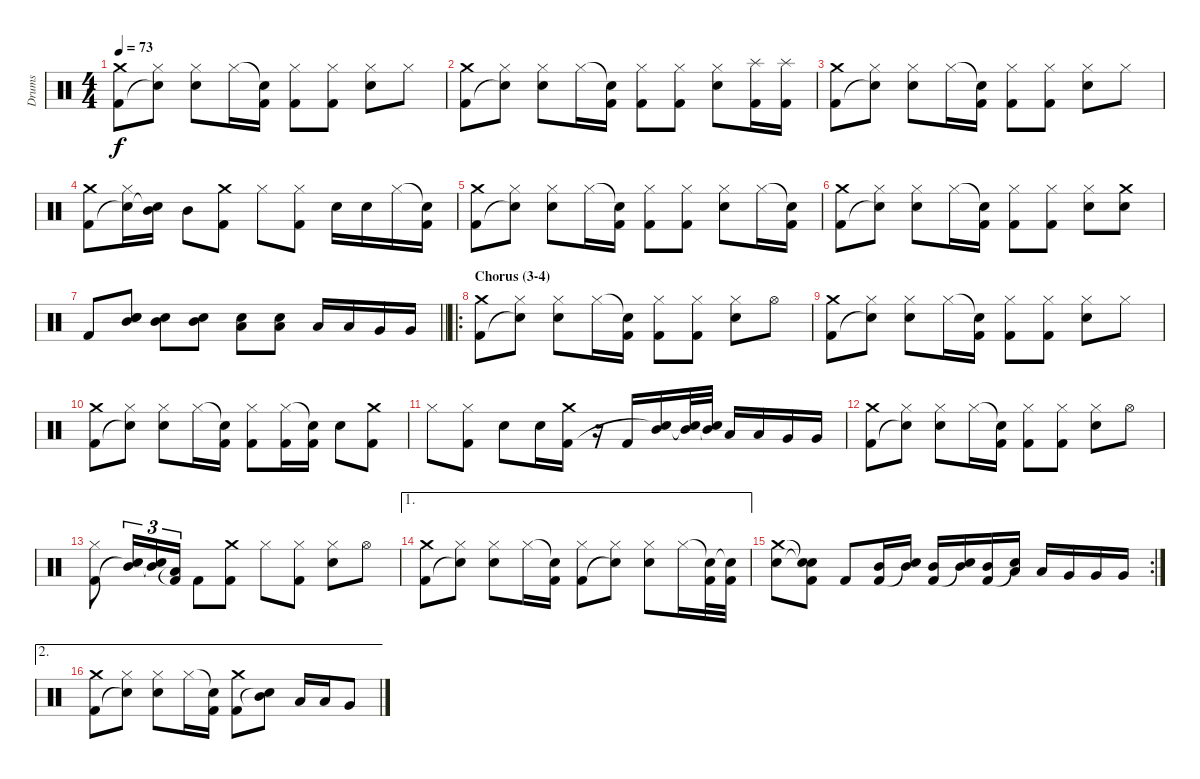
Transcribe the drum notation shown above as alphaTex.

\track ("Drums" "Drums") {instrument percussion}
\staff {score}
\articulation defaults
\ts (4 4)
\tempo 73
\clef neutral
\ks c
("Crash medium (hit)" "Kick (hit) 2").8{dy f} ("Hi-Hat (closed)" "Snare (hit)"{t}).8 ("Hi-Hat (closed)" "Electric Snare (hit)").8 "Hi-Hat (closed)".16 ("Snare (hit)"{t} "Kick (hit) 2").16 ("Hi-Hat (closed)" "Kick (hit) 2").8 ("Hi-Hat (closed)" "Kick (hit) 2").8 ("Hi-Hat (closed)" "Electric Snare (hit)").8 "Hi-Hat (closed)".8 |
("Crash medium (hit)" "Kick (hit) 2").8 ("Hi-Hat (closed)" "Snare (hit)"{t}).8 ("Hi-Hat (closed)" "Electric Snare (hit)").8 "Hi-Hat (closed)".16 ("Snare (hit)"{t} "Kick (hit) 2").16 ("Hi-Hat (closed)" "Kick (hit) 2").8 ("Hi-Hat (closed)" "Kick (hit) 2").8 ("Hi-Hat (closed)" "Electric Snare (hit)").8 ("Splash (hit)" "Kick (hit) 2").16 ("Splash (hit)" "Kick (hit) 2").16 |
("Crash medium (hit)" "Kick (hit) 2").8 ("Hi-Hat (closed)" "Snare (hit)"{t}).8 ("Hi-Hat (closed)" "Electric Snare (hit)").8 "Hi-Hat (closed)".16 ("Snare (hit)"{t} "Kick (hit) 2").16 ("Hi-Hat (closed)" "Kick (hit) 2").8 ("Hi-Hat (closed)" "Kick (hit) 2").8 ("Hi-Hat (closed)" "Electric Snare (hit)").8 "Hi-Hat (closed)".8 |
("Crash medium (hit)" "Kick (hit) 2").8 ("Hi-Hat (closed)" "Snare (hit)"{t}).16 ("Mid Tom (hit)" "Snare (hit)"{t}).16 "Mid Tom (hit)".8 ("Crash medium (hit)" "Kick (hit) 2").8 "Hi-Hat (closed)".8 ("Hi-Hat (closed)" "Kick (hit) 2").8 "Electric Snare (hit)".16 "Electric Snare (hit)".16 "Hi-Hat (closed)".16 ("Snare (hit)"{t} "Kick (hit) 2").16 |
("Crash medium (hit)" "Kick (hit) 2").8 ("Hi-Hat (closed)" "Snare (hit)"{t}).8 ("Hi-Hat (closed)" "Electric Snare (hit)").8 "Hi-Hat (closed)".16 ("Snare (hit)"{t} "Kick (hit) 2").16 ("Hi-Hat (closed)" "Kick (hit) 2").8 ("Hi-Hat (closed)" "Kick (hit) 2").8 ("Hi-Hat (closed)" "Electric Snare (hit)").8 "Hi-Hat (closed)".16 ("Snare (hit)"{t} "Kick (hit) 2").16 |
("Crash medium (hit)" "Kick (hit) 2").8 ("Hi-Hat (closed)" "Snare (hit)"{t}).8 ("Hi-Hat (closed)" "Electric Snare (hit)").8 "Hi-Hat (closed)".16 ("Snare (hit)"{t} "Kick (hit) 2").16 ("Hi-Hat (closed)" "Kick (hit) 2").8 ("Hi-Hat (closed)" "Kick (hit) 2").8 ("Hi-Hat (closed)" "Electric Snare (hit)").8 ("Crash medium (hit)" "Electric Snare (hit)").8 |
\barLineRight lightlight "Kick (hit) 2".8
("Electric Snare (hit)" "Mid Tom (hit)" "Snare (hit)").8 ("Electric Snare (hit)" "Mid Tom (hit)").8 ("Electric Snare (hit)" "Mid Tom (hit)").8 ("Electric Snare (hit)" "Low Tom (hit)").8 ("Electric Snare (hit)" "Low Tom (hit)").8 "Low Tom (hit)".16 "Low Tom (hit)".16 "Very Low Tom (hit)".16 "Very Low Tom (hit)".16 |
\ro
\section ("" "Chorus (3-4)")
("Crash medium (hit)" "Kick (hit) 2").8 ("Hi-Hat (closed)" "Snare (hit)"{t}).8 ("Hi-Hat (closed)" "Electric Snare (hit)").8 "Hi-Hat (closed)".16 ("Snare (hit)"{t} "Kick (hit) 2").16 ("Hi-Hat (closed)" "Kick (hit) 2").8 ("Hi-Hat (closed)" "Kick (hit) 2").8 ("Hi-Hat (closed)" "Electric Snare (hit)").8 "Hi-Hat (open)".8 |
("Crash medium (hit)" "Kick (hit) 2").8 ("Hi-Hat (closed)" "Snare (hit)"{t}).8 ("Hi-Hat (closed)" "Electric Snare (hit)").8 "Hi-Hat (closed)".16 ("Snare (hit)"{t} "Kick (hit) 2").16 ("Hi-Hat (closed)" "Kick (hit) 2").8 ("Hi-Hat (closed)" "Kick (hit) 2").8 ("Hi-Hat (closed)" "Electric Snare (hit)").8 "Hi-Hat (closed)".8 |
("Crash medium (hit)" "Kick (hit) 2").8 ("Hi-Hat (closed)" "Snare (hit)"{t}).8 ("Hi-Hat (closed)" "Electric Snare (hit)").8 "Hi-Hat (closed)".16 ("Snare (hit)"{t} "Kick (hit) 2").16 ("Hi-Hat (closed)" "Kick (hit) 2").8 ("Hi-Hat (closed)" "Kick (hit) 2").16 ("Snare (hit)"{t} "Kick (hit) 2").16 "Electric Snare (hit)".8 ("Crash medium (hit)" "Kick (hit) 2").8 |
"Hi-Hat (closed)".8 ("Hi-Hat (closed)" "Kick (hit) 2").8 "Electric Snare (hit)".8 "Electric Snare (hit)".16 ("Crash medium (hit)" "Kick (hit) 2").16 r.16 "Kick (hit) 2".16 ("Mid Tom (hit)" "Snare (hit)"{t}).16 ("Mid Tom (hit)" "Snare (hit)"{t}).32 ("Mid Tom (hit)" "Snare (hit)"{t}).32 "Low Tom (hit)".16 "Low Tom (hit)".16 "Very Low Tom (hit)".16 "Very Low Tom (hit)".16 |
("Crash medium (hit)" "Kick (hit) 2").8 ("Hi-Hat (closed)" "Snare (hit)"{t}).8 ("Hi-Hat (closed)" "Electric Snare (hit)").8 "Hi-Hat (closed)".16 ("Snare (hit)"{t} "Kick (hit) 2").16 ("Hi-Hat (closed)" "Kick (hit) 2").8 ("Hi-Hat (closed)" "Kick (hit) 2").8 ("Hi-Hat (closed)" "Electric Snare (hit)").8 "Hi-Hat (open)".8 |
("Hi-Hat (closed)" "Kick (hit) 2").8 ("Mid Tom (hit)" "Snare (hit)"{t}).16{tu (3 2)} ("Mid Tom (hit)" "Snare (hit)"{t}).16{tu (3 2)} ("Low Tom (hit)" "Kick (hit) 2"{t}).16{tu (3 2)} "Kick (hit) 2".8 ("Crash medium (hit)" "Kick (hit) 2").8 "Hi-Hat (closed)".8 ("Hi-Hat (closed)" "Kick (hit) 2").8 ("Hi-Hat (closed)" "Electric Snare (hit)").8 "Hi-Hat (open)".8 |
\ae 1
("Crash medium (hit)" "Kick (hit) 2").8 ("Hi-Hat (closed)" "Snare (hit)"{t}).8 ("Hi-Hat (closed)" "Electric Snare (hit)").8 "Hi-Hat (closed)".16 ("Snare (hit)"{t} "Kick (hit) 2").16 ("Hi-Hat (closed)" "Kick (hit) 2").8 ("Hi-Hat (closed)" "Snare (hit)"{t}).8 ("Hi-Hat (closed)" "Electric Snare (hit)").8 "Hi-Hat (closed)".16 ("Snare (hit)"{t} "Kick (hit) 2").32 ("Snare (hit)"{t} "Kick (hit) 2").32 |
\rc 2
("Crash medium (hit)" "Electric Snare (hit)").8 ("Snare (hit)"{t} "Snare (hit)"{t} "Kick (hit) 2").8 "Kick (hit) 2".8 ("Mid Tom (hit)" "Kick (hit) 2").16 ("Mid Tom (hit)" "Snare (hit)"{t}).16 ("Mid Tom (hit)" "Kick (hit) 2").16 ("Mid Tom (hit)" "Snare (hit)"{t}).16 ("Mid Tom (hit)" "Kick (hit) 2").16 ("Low Tom (hit)" "Snare (hit)"{t}).16 "Low Tom (hit)".16 "Very Low Tom (hit)".16 "Very Low Tom (hit)".16 "Very Low Tom (hit)".16 |
\ae 2
("Crash medium (hit)" "Kick (hit) 2").8 ("Hi-Hat (closed)" "Snare (hit)"{t}).8 ("Hi-Hat (closed)" "Electric Snare (hit)").8 "Hi-Hat (closed)".16 ("Snare (hit)"{t} "Kick (hit) 2").16 ("Crash medium (hit)" "Kick (hit) 2").8 ("Mid Tom (hit)" "Snare (hit)"{t}).8 "Low Tom (hit)".16 "Low Tom (hit)".16 "Very Low Tom (hit)".8
